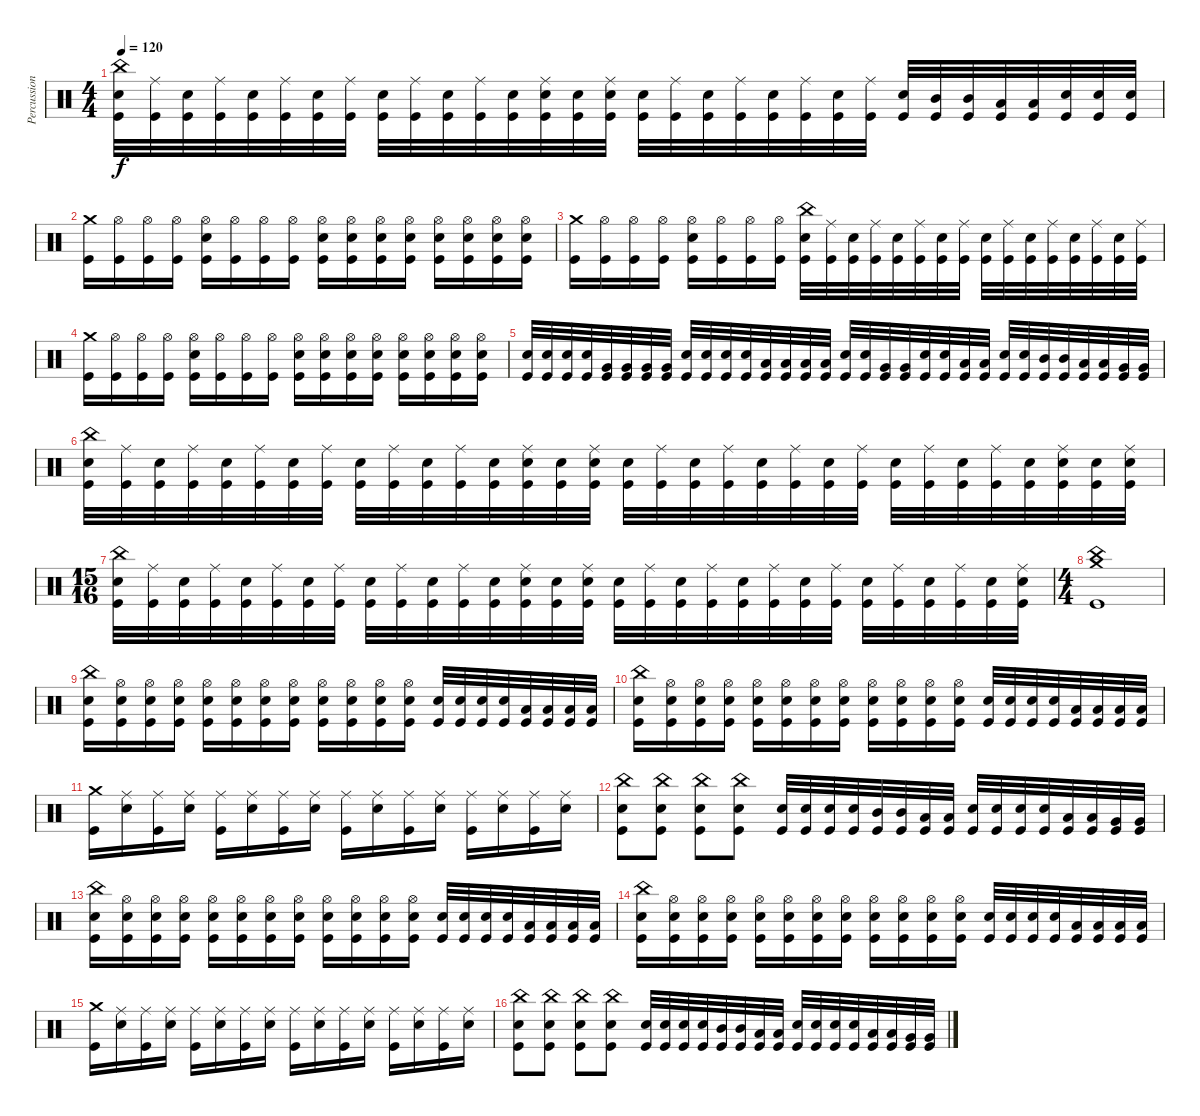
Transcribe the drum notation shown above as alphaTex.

\track ("Percussion" "Percussion") {instrument percussion}
\staff {score}
\articulation defaults
\ts (4 4)
\tempo 120
\clef neutral
\ks c
("China (hit)" "Electric Snare (hit)" "Kick (hit)").32{dy f} ("Ride (middle)" "Kick (hit)").32 ("Electric Snare (hit)" "Kick (hit)").32 ("Ride (middle)" "Kick (hit)").32 ("Electric Snare (hit)" "Kick (hit)").32 ("Ride (middle)" "Kick (hit)").32 ("Electric Snare (hit)" "Kick (hit)").32 ("Ride (middle)" "Kick (hit)").32 ("Electric Snare (hit)" "Kick (hit)").32 ("Ride (middle)" "Kick (hit)").32 ("Electric Snare (hit)" "Kick (hit)").32 ("Ride (middle)" "Kick (hit)").32 ("Electric Snare (hit)" "Kick (hit)").32 ("Ride (middle)" "Electric Snare (hit)" "Kick (hit)").32 ("Electric Snare (hit)" "Kick (hit)").32 ("Ride (middle)" "Electric Snare (hit)" "Kick (hit)").32 ("Electric Snare (hit)" "Kick (hit)").32 ("Ride (middle)" "Kick (hit)").32 ("Electric Snare (hit)" "Kick (hit)").32 ("Ride (middle)" "Kick (hit)").32 ("Electric Snare (hit)" "Kick (hit)").32 ("Ride (middle)" "Kick (hit)").32 ("Electric Snare (hit)" "Kick (hit)").32 ("Ride (middle)" "Kick (hit)").32 ("Electric Snare (hit)" "Kick (hit)").32 ("Mid Tom (hit)" "Kick (hit)").32 ("Mid Tom (hit)" "Kick (hit)").32 ("Low Tom (hit)" "Kick (hit)").32 ("Low Tom (hit)" "Kick (hit)").32 ("Electric Snare (hit)" "Kick (hit)").32 ("Electric Snare (hit)" "Kick (hit)").32 ("Electric Snare (hit)" "Kick (hit)").32 |
("Crash medium (hit)" "Kick (hit)").16 ("Hi-Hat (open)" "Kick (hit)").16 ("Hi-Hat (open)" "Kick (hit)").16 ("Hi-Hat (open)" "Kick (hit)").16 ("Hi-Hat (open)" "Electric Snare (hit)" "Kick (hit)").16 ("Hi-Hat (open)" "Kick (hit)").16 ("Hi-Hat (open)" "Kick (hit)").16 ("Hi-Hat (open)" "Kick (hit)").16 ("Hi-Hat (open)" "Electric Snare (hit)" "Kick (hit)").16 ("Hi-Hat (open)" "Electric Snare (hit)" "Kick (hit)").16 ("Hi-Hat (open)" "Electric Snare (hit)" "Kick (hit)").16 ("Hi-Hat (open)" "Electric Snare (hit)" "Kick (hit)").16 ("Hi-Hat (open)" "Electric Snare (hit)" "Kick (hit)").16 ("Hi-Hat (open)" "Electric Snare (hit)" "Kick (hit)").16 ("Hi-Hat (open)" "Electric Snare (hit)" "Kick (hit)").16 ("Hi-Hat (open)" "Electric Snare (hit)" "Kick (hit)").16 |
("Crash medium (hit)" "Kick (hit)").16 ("Hi-Hat (open)" "Kick (hit)").16 ("Hi-Hat (open)" "Kick (hit)").16 ("Hi-Hat (open)" "Kick (hit)").16 ("Hi-Hat (open)" "Electric Snare (hit)" "Kick (hit)").16 ("Hi-Hat (open)" "Kick (hit)").16 ("Hi-Hat (open)" "Kick (hit)").16 ("Hi-Hat (open)" "Kick (hit)").16 ("China (hit)" "Electric Snare (hit)" "Kick (hit)").32 ("Ride (middle)" "Kick (hit)").32 ("Electric Snare (hit)" "Kick (hit)").32 ("Ride (middle)" "Kick (hit)").32 ("Electric Snare (hit)" "Kick (hit)").32 ("Ride (middle)" "Kick (hit)").32 ("Electric Snare (hit)" "Kick (hit)").32 ("Ride (middle)" "Kick (hit)").32 ("Electric Snare (hit)" "Kick (hit)").32 ("Ride (middle)" "Kick (hit)").32 ("Electric Snare (hit)" "Kick (hit)").32 ("Ride (middle)" "Kick (hit)").32 ("Electric Snare (hit)" "Kick (hit)").32 ("Ride (middle)" "Kick (hit)").32 ("Electric Snare (hit)" "Kick (hit)").32 ("Ride (middle)" "Kick (hit)").32 |
("Crash medium (hit)" "Kick (hit)").16 ("Hi-Hat (open)" "Kick (hit)").16 ("Hi-Hat (open)" "Kick (hit)").16 ("Hi-Hat (open)" "Kick (hit)").16 ("Hi-Hat (open)" "Electric Snare (hit)" "Kick (hit)").16 ("Hi-Hat (open)" "Kick (hit)").16 ("Hi-Hat (open)" "Kick (hit)").16 ("Hi-Hat (open)" "Kick (hit)").16 ("Hi-Hat (open)" "Electric Snare (hit)" "Kick (hit)").16 ("Hi-Hat (open)" "Electric Snare (hit)" "Kick (hit)").16 ("Hi-Hat (open)" "Electric Snare (hit)" "Kick (hit)").16 ("Hi-Hat (open)" "Electric Snare (hit)" "Kick (hit)").16 ("Hi-Hat (open)" "Electric Snare (hit)" "Kick (hit)").16 ("Hi-Hat (open)" "Electric Snare (hit)" "Kick (hit)").16 ("Hi-Hat (open)" "Electric Snare (hit)" "Kick (hit)").16 ("Hi-Hat (open)" "Electric Snare (hit)" "Kick (hit)").16 |
("Electric Snare (hit)" "Kick (hit)").32 ("Electric Snare (hit)" "Kick (hit)").32 ("Electric Snare (hit)" "Kick (hit)").32 ("Electric Snare (hit)" "Kick (hit)").32 ("Very Low Tom (hit)" "Kick (hit)").32 ("Very Low Tom (hit)" "Kick (hit)").32 ("Very Low Tom (hit)" "Kick (hit)").32 ("Very Low Tom (hit)" "Kick (hit)").32 ("Electric Snare (hit)" "Kick (hit)").32 ("Electric Snare (hit)" "Kick (hit)").32 ("Electric Snare (hit)" "Kick (hit)").32 ("Electric Snare (hit)" "Kick (hit)").32 ("Low Tom (hit)" "Kick (hit)").32 ("Low Tom (hit)" "Kick (hit)").32 ("Low Tom (hit)" "Kick (hit)").32 ("Low Tom (hit)" "Kick (hit)").32 ("Electric Snare (hit)" "Kick (hit)").32 ("Electric Snare (hit)" "Kick (hit)").32 ("Very Low Tom (hit)" "Kick (hit)").32 ("Very Low Tom (hit)" "Kick (hit)").32 ("Electric Snare (hit)" "Kick (hit)").32 ("Electric Snare (hit)" "Kick (hit)").32 ("Low Floor Tom (hit)" "Kick (hit)").32 ("Low Floor Tom (hit)" "Kick (hit)").32 ("Electric Snare (hit)" "Kick (hit)").32 ("Electric Snare (hit)" "Kick (hit)").32 ("Mid Tom (hit)" "Kick (hit)").32 ("Mid Tom (hit)" "Kick (hit)").32 ("Low Tom (hit)" "Kick (hit)").32 ("Low Tom (hit)" "Kick (hit)").32 ("Very Low Tom (hit)" "Kick (hit)").32 ("Very Low Tom (hit)" "Kick (hit)").32 |
("China (hit)" "Electric Snare (hit)" "Kick (hit)").32 ("Ride (middle)" "Kick (hit)").32 ("Electric Snare (hit)" "Kick (hit)").32 ("Ride (middle)" "Kick (hit)").32 ("Electric Snare (hit)" "Kick (hit)").32 ("Ride (middle)" "Kick (hit)").32 ("Electric Snare (hit)" "Kick (hit)").32 ("Ride (middle)" "Kick (hit)").32 ("Electric Snare (hit)" "Kick (hit)").32 ("Ride (middle)" "Kick (hit)").32 ("Electric Snare (hit)" "Kick (hit)").32 ("Ride (middle)" "Kick (hit)").32 ("Electric Snare (hit)" "Kick (hit)").32 ("Ride (middle)" "Electric Snare (hit)" "Kick (hit)").32 ("Electric Snare (hit)" "Kick (hit)").32 ("Ride (middle)" "Electric Snare (hit)" "Kick (hit)").32 ("Electric Snare (hit)" "Kick (hit)").32 ("Ride (middle)" "Kick (hit)").32 ("Electric Snare (hit)" "Kick (hit)").32 ("Ride (middle)" "Kick (hit)").32 ("Electric Snare (hit)" "Kick (hit)").32 ("Ride (middle)" "Kick (hit)").32 ("Electric Snare (hit)" "Kick (hit)").32 ("Ride (middle)" "Kick (hit)").32 ("Electric Snare (hit)" "Kick (hit)").32 ("Ride (middle)" "Kick (hit)").32 ("Electric Snare (hit)" "Kick (hit)").32 ("Ride (middle)" "Kick (hit)").32 ("Electric Snare (hit)" "Kick (hit)").32 ("Ride (middle)" "Electric Snare (hit)" "Kick (hit)").32 ("Electric Snare (hit)" "Kick (hit)").32 ("Ride (middle)" "Electric Snare (hit)" "Kick (hit)").32 |
\ts (15 16)
("China (hit)" "Electric Snare (hit)" "Kick (hit)").32 ("Ride (middle)" "Kick (hit)").32 ("Electric Snare (hit)" "Kick (hit)").32 ("Ride (middle)" "Kick (hit)").32 ("Electric Snare (hit)" "Kick (hit)").32 ("Ride (middle)" "Kick (hit)").32 ("Electric Snare (hit)" "Kick (hit)").32 ("Ride (middle)" "Kick (hit)").32 ("Electric Snare (hit)" "Kick (hit)").32 ("Ride (middle)" "Kick (hit)").32 ("Electric Snare (hit)" "Kick (hit)").32 ("Ride (middle)" "Kick (hit)").32 ("Electric Snare (hit)" "Kick (hit)").32 ("Ride (middle)" "Electric Snare (hit)" "Kick (hit)").32 ("Electric Snare (hit)" "Kick (hit)").32 ("Ride (middle)" "Electric Snare (hit)" "Kick (hit)").32 ("Electric Snare (hit)" "Kick (hit)").32 ("Ride (middle)" "Kick (hit)").32 ("Electric Snare (hit)" "Kick (hit)").32 ("Ride (middle)" "Kick (hit)").32 ("Electric Snare (hit)" "Kick (hit)").32 ("Ride (middle)" "Kick (hit)").32 ("Electric Snare (hit)" "Kick (hit)").32 ("Ride (middle)" "Kick (hit)").32 ("Electric Snare (hit)" "Kick (hit)").32 ("Ride (middle)" "Kick (hit)").32 ("Electric Snare (hit)" "Kick (hit)").32 ("Ride (middle)" "Kick (hit)").32 ("Electric Snare (hit)" "Kick (hit)").32 ("Ride (middle)" "Electric Snare (hit)" "Kick (hit)").32 |
\ts (4 4)
("Crash medium (hit)" "China (hit)" "Kick (hit)").1 |
("China (hit)" "Electric Snare (hit)" "Kick (hit)").16 ("Hi-Hat (open)" "Electric Snare (hit)" "Kick (hit)").16 ("Hi-Hat (open)" "Electric Snare (hit)" "Kick (hit)").16 ("Hi-Hat (open)" "Electric Snare (hit)" "Kick (hit)").16 ("Hi-Hat (open)" "Electric Snare (hit)" "Kick (hit)").16 ("Hi-Hat (open)" "Electric Snare (hit)" "Kick (hit)").16 ("Hi-Hat (open)" "Electric Snare (hit)" "Kick (hit)").16 ("Hi-Hat (open)" "Electric Snare (hit)" "Kick (hit)").16 ("Hi-Hat (open)" "Electric Snare (hit)" "Kick (hit)").16 ("Hi-Hat (open)" "Electric Snare (hit)" "Kick (hit)").16 ("Hi-Hat (open)" "Electric Snare (hit)" "Kick (hit)").16 ("Hi-Hat (open)" "Electric Snare (hit)" "Kick (hit)").16 ("Electric Snare (hit)" "Kick (hit)").32 ("Electric Snare (hit)" "Kick (hit)").32 ("Electric Snare (hit)" "Kick (hit)").32 ("Electric Snare (hit)" "Kick (hit)").32 ("Low Tom (hit)" "Kick (hit)").32 ("Low Tom (hit)" "Kick (hit)").32 ("Low Tom (hit)" "Kick (hit)").32 ("Low Tom (hit)" "Kick (hit)").32 |
("China (hit)" "Electric Snare (hit)" "Kick (hit)").16 ("Hi-Hat (open)" "Electric Snare (hit)" "Kick (hit)").16 ("Hi-Hat (open)" "Electric Snare (hit)" "Kick (hit)").16 ("Hi-Hat (open)" "Electric Snare (hit)" "Kick (hit)").16 ("Hi-Hat (open)" "Electric Snare (hit)" "Kick (hit)").16 ("Hi-Hat (open)" "Electric Snare (hit)" "Kick (hit)").16 ("Hi-Hat (open)" "Electric Snare (hit)" "Kick (hit)").16 ("Hi-Hat (open)" "Electric Snare (hit)" "Kick (hit)").16 ("Hi-Hat (open)" "Electric Snare (hit)" "Kick (hit)").16 ("Hi-Hat (open)" "Electric Snare (hit)" "Kick (hit)").16 ("Hi-Hat (open)" "Electric Snare (hit)" "Kick (hit)").16 ("Hi-Hat (open)" "Electric Snare (hit)" "Kick (hit)").16 ("Electric Snare (hit)" "Kick (hit)").32 ("Electric Snare (hit)" "Kick (hit)").32 ("Electric Snare (hit)" "Kick (hit)").32 ("Electric Snare (hit)" "Kick (hit)").32 ("Low Tom (hit)" "Kick (hit)").32 ("Low Tom (hit)" "Kick (hit)").32 ("Low Tom (hit)" "Kick (hit)").32 ("Low Tom (hit)" "Kick (hit)").32 |
("Crash medium (hit)" "Kick (hit)").16 ("Ride (middle)" "Electric Snare (hit)").16 ("Ride (middle)" "Kick (hit)").16 ("Ride (middle)" "Electric Snare (hit)").16 ("Ride (middle)" "Kick (hit)").16 ("Ride (middle)" "Electric Snare (hit)").16 ("Ride (middle)" "Kick (hit)").16 ("Ride (middle)" "Electric Snare (hit)").16 ("Ride (middle)" "Kick (hit)").16 ("Ride (middle)" "Electric Snare (hit)").16 ("Ride (middle)" "Kick (hit)").16 ("Ride (middle)" "Electric Snare (hit)").16 ("Ride (middle)" "Kick (hit)").16 ("Ride (middle)" "Electric Snare (hit)").16 ("Ride (middle)" "Kick (hit)").16 ("Ride (middle)" "Electric Snare (hit)").16 |
("China (hit)" "Electric Snare (hit)" "Kick (hit)").8 ("China (hit)" "Electric Snare (hit)" "Kick (hit)").8 ("China (hit)" "Electric Snare (hit)" "Kick (hit)").8 ("China (hit)" "Electric Snare (hit)" "Kick (hit)").8 ("Electric Snare (hit)" "Kick (hit)").32 ("Electric Snare (hit)" "Kick (hit)").32 ("Electric Snare (hit)" "Kick (hit)").32 ("Electric Snare (hit)" "Kick (hit)").32 ("Mid Tom (hit)" "Kick (hit)").32 ("Mid Tom (hit)" "Kick (hit)").32 ("Low Tom (hit)" "Kick (hit)").32 ("Low Tom (hit)" "Kick (hit)").32 ("Electric Snare (hit)" "Kick (hit)").32 ("Electric Snare (hit)" "Kick (hit)").32 ("Electric Snare (hit)" "Kick (hit)").32 ("Electric Snare (hit)" "Kick (hit)").32 ("Low Tom (hit)" "Kick (hit)").32 ("Low Tom (hit)" "Kick (hit)").32 ("Very Low Tom (hit)" "Kick (hit)").32 ("Very Low Tom (hit)" "Kick (hit)").32 |
("China (hit)" "Electric Snare (hit)" "Kick (hit)").16 ("Hi-Hat (open)" "Electric Snare (hit)" "Kick (hit)").16 ("Hi-Hat (open)" "Electric Snare (hit)" "Kick (hit)").16 ("Hi-Hat (open)" "Electric Snare (hit)" "Kick (hit)").16 ("Hi-Hat (open)" "Electric Snare (hit)" "Kick (hit)").16 ("Hi-Hat (open)" "Electric Snare (hit)" "Kick (hit)").16 ("Hi-Hat (open)" "Electric Snare (hit)" "Kick (hit)").16 ("Hi-Hat (open)" "Electric Snare (hit)" "Kick (hit)").16 ("Hi-Hat (open)" "Electric Snare (hit)" "Kick (hit)").16 ("Hi-Hat (open)" "Electric Snare (hit)" "Kick (hit)").16 ("Hi-Hat (open)" "Electric Snare (hit)" "Kick (hit)").16 ("Hi-Hat (open)" "Electric Snare (hit)" "Kick (hit)").16 ("Electric Snare (hit)" "Kick (hit)").32 ("Electric Snare (hit)" "Kick (hit)").32 ("Electric Snare (hit)" "Kick (hit)").32 ("Electric Snare (hit)" "Kick (hit)").32 ("Low Tom (hit)" "Kick (hit)").32 ("Low Tom (hit)" "Kick (hit)").32 ("Low Tom (hit)" "Kick (hit)").32 ("Low Tom (hit)" "Kick (hit)").32 |
("China (hit)" "Electric Snare (hit)" "Kick (hit)").16 ("Hi-Hat (open)" "Electric Snare (hit)" "Kick (hit)").16 ("Hi-Hat (open)" "Electric Snare (hit)" "Kick (hit)").16 ("Hi-Hat (open)" "Electric Snare (hit)" "Kick (hit)").16 ("Hi-Hat (open)" "Electric Snare (hit)" "Kick (hit)").16 ("Hi-Hat (open)" "Electric Snare (hit)" "Kick (hit)").16 ("Hi-Hat (open)" "Electric Snare (hit)" "Kick (hit)").16 ("Hi-Hat (open)" "Electric Snare (hit)" "Kick (hit)").16 ("Hi-Hat (open)" "Electric Snare (hit)" "Kick (hit)").16 ("Hi-Hat (open)" "Electric Snare (hit)" "Kick (hit)").16 ("Hi-Hat (open)" "Electric Snare (hit)" "Kick (hit)").16 ("Hi-Hat (open)" "Electric Snare (hit)" "Kick (hit)").16 ("Electric Snare (hit)" "Kick (hit)").32 ("Electric Snare (hit)" "Kick (hit)").32 ("Electric Snare (hit)" "Kick (hit)").32 ("Electric Snare (hit)" "Kick (hit)").32 ("Low Tom (hit)" "Kick (hit)").32 ("Low Tom (hit)" "Kick (hit)").32 ("Low Tom (hit)" "Kick (hit)").32 ("Low Tom (hit)" "Kick (hit)").32 |
("Crash medium (hit)" "Kick (hit)").16 ("Ride (middle)" "Electric Snare (hit)").16 ("Ride (middle)" "Kick (hit)").16 ("Ride (middle)" "Electric Snare (hit)").16 ("Ride (middle)" "Kick (hit)").16 ("Ride (middle)" "Electric Snare (hit)").16 ("Ride (middle)" "Kick (hit)").16 ("Ride (middle)" "Electric Snare (hit)").16 ("Ride (middle)" "Kick (hit)").16 ("Ride (middle)" "Electric Snare (hit)").16 ("Ride (middle)" "Kick (hit)").16 ("Ride (middle)" "Electric Snare (hit)").16 ("Ride (middle)" "Kick (hit)").16 ("Ride (middle)" "Electric Snare (hit)").16 ("Ride (middle)" "Kick (hit)").16 ("Ride (middle)" "Electric Snare (hit)").16 |
("China (hit)" "Electric Snare (hit)" "Kick (hit)").8 ("China (hit)" "Electric Snare (hit)" "Kick (hit)").8 ("China (hit)" "Electric Snare (hit)" "Kick (hit)").8 ("China (hit)" "Electric Snare (hit)" "Kick (hit)").8 ("Electric Snare (hit)" "Kick (hit)").32 ("Electric Snare (hit)" "Kick (hit)").32 ("Electric Snare (hit)" "Kick (hit)").32 ("Electric Snare (hit)" "Kick (hit)").32 ("Mid Tom (hit)" "Kick (hit)").32 ("Mid Tom (hit)" "Kick (hit)").32 ("Low Tom (hit)" "Kick (hit)").32 ("Low Tom (hit)" "Kick (hit)").32 ("Electric Snare (hit)" "Kick (hit)").32 ("Electric Snare (hit)" "Kick (hit)").32 ("Electric Snare (hit)" "Kick (hit)").32 ("Electric Snare (hit)" "Kick (hit)").32 ("Low Tom (hit)" "Kick (hit)").32 ("Low Tom (hit)" "Kick (hit)").32 ("Very Low Tom (hit)" "Kick (hit)").32 ("Very Low Tom (hit)" "Kick (hit)").32
